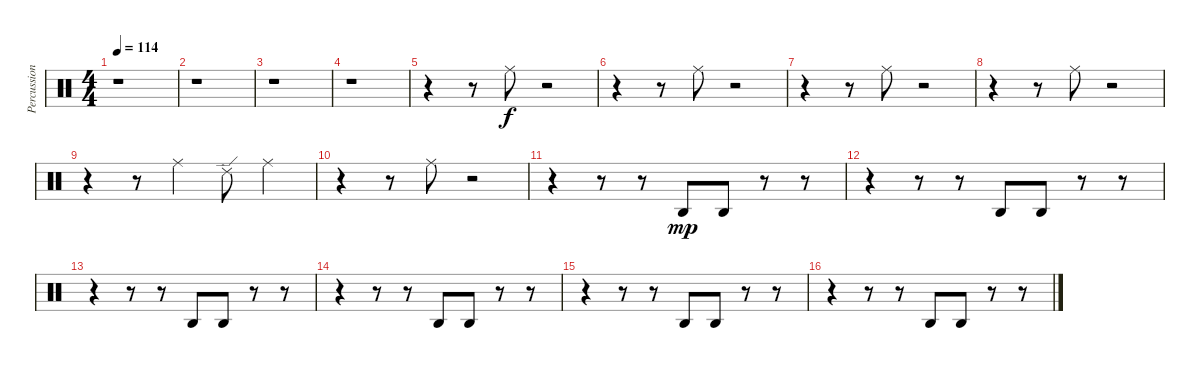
\track ("Percussion" "Percussion") {instrument percussion}
\staff {score}
\articulation defaults
\ts (4 4)
\tempo 114
\clef neutral
\ks c
r.1{dy f} |
r.1 |
r.1 |
r.1 |
r.4 r.8 "Ride (middle)".8 r.2 |
r.4 r.8 "Ride (middle)".8 r.2 |
r.4 r.8 "Ride (middle)".8 r.2 |
r.4 r.8 "Ride (middle)".8 r.2 |
r.4 r.8 "Ride (middle)".4 "Ride (edge) 2".8 "Ride (middle)".4 |
r.4 r.8 "Ride (middle)".8 r.2 |
r.4 r.8 r.8 "Agogo high (hit)".8{dy mp} "Agogo high (hit)".8 r.8 r.8 |
r.4 r.8 r.8 "Agogo high (hit)".8 "Agogo high (hit)".8 r.8 r.8 |
r.4 r.8 r.8 "Agogo high (hit)".8 "Agogo high (hit)".8 r.8 r.8 |
r.4 r.8 r.8 "Agogo high (hit)".8 "Agogo high (hit)".8 r.8 r.8 |
r.4 r.8 r.8 "Agogo high (hit)".8 "Agogo high (hit)".8 r.8 r.8 |
r.4 r.8 r.8 "Agogo high (hit)".8 "Agogo high (hit)".8 r.8 r.8
